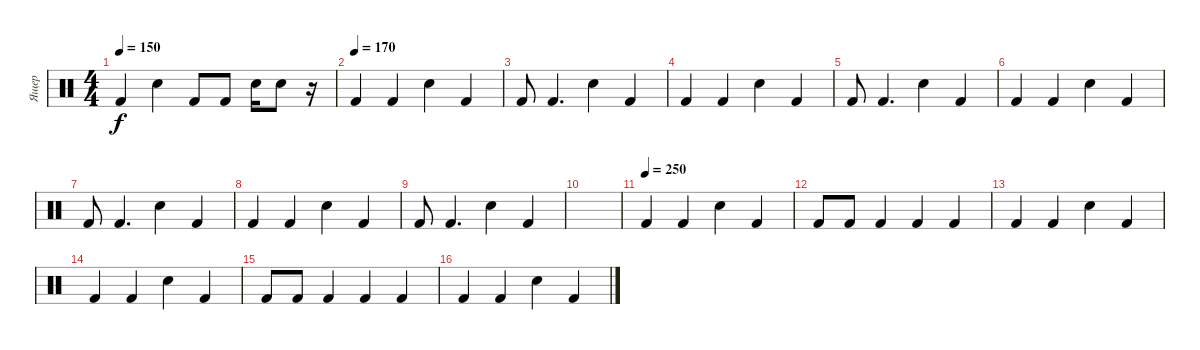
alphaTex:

\track ("Ящер" "Ящер") {instrument percussion}
\staff {score}
\articulation defaults
\ts (4 4)
\tempo 150
\clef neutral
\ks c "Kick (hit) 2".4{dy f} "Snare (hit) 2".4 "Kick (hit) 2".8 "Kick (hit) 2".8 "Snare (hit) 2".16 "Snare (hit) 2".8
r.16 |
\tempo (170)
"Kick (hit) 2".4 "Kick (hit) 2".4 "Snare (hit) 2".4 "Kick (hit) 2".4 |
"Kick (hit) 2".8 "Kick (hit) 2".4{d} "Snare (hit) 2".4 "Kick (hit) 2".4 |
"Kick (hit) 2".4 "Kick (hit) 2".4 "Snare (hit) 2".4 "Kick (hit) 2".4 |
"Kick (hit) 2".8 "Kick (hit) 2".4{d} "Snare (hit) 2".4 "Kick (hit) 2".4 |
"Kick (hit) 2".4 "Kick (hit) 2".4 "Snare (hit) 2".4 "Kick (hit) 2".4 |
"Kick (hit) 2".8 "Kick (hit) 2".4{d} "Snare (hit) 2".4 "Kick (hit) 2".4 |
"Kick (hit) 2".4 "Kick (hit) 2".4 "Snare (hit) 2".4 "Kick (hit) 2".4 |
"Kick (hit) 2".8 "Kick (hit) 2".4{d} "Snare (hit) 2".4 "Kick (hit) 2".4 |
|
\tempo (250)
"Kick (hit) 2".4 "Kick (hit) 2".4 "Snare (hit) 2".4 "Kick (hit) 2".4 |
"Kick (hit) 2".8 "Kick (hit) 2".8 "Kick (hit) 2".4 "Kick (hit) 2".4 "Kick (hit) 2".4 |
"Kick (hit) 2".4 "Kick (hit) 2".4 "Snare (hit) 2".4 "Kick (hit) 2".4 |
"Kick (hit) 2".4 "Kick (hit) 2".4 "Snare (hit) 2".4 "Kick (hit) 2".4 |
"Kick (hit) 2".8 "Kick (hit) 2".8 "Kick (hit) 2".4 "Kick (hit) 2".4 "Kick (hit) 2".4 |
"Kick (hit) 2".4 "Kick (hit) 2".4 "Snare (hit) 2".4 "Kick (hit) 2".4
